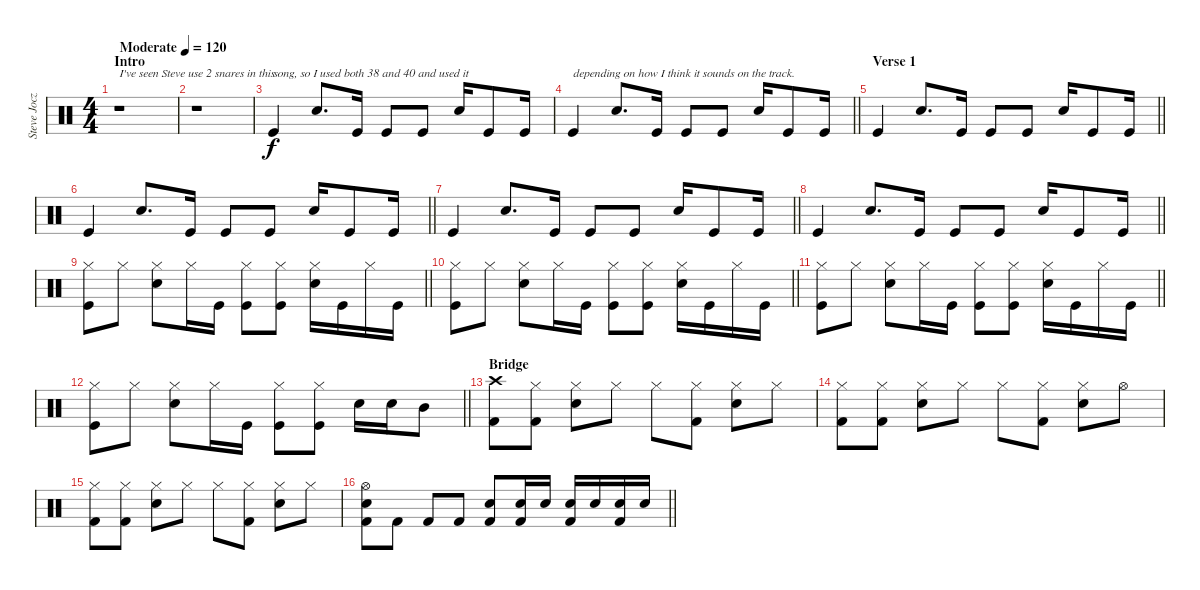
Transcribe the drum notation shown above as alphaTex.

\track ("Steve Jocz" "Steve Jocz") {instrument percussion}
\staff {score}
\articulation defaults
\ts (4 4)
\section ("" "Intro")
\tempo (120 "Moderate")
\clef neutral
\ks c
r.1{txt "I've seen Steve use 2 snares in this" dy f} |
r.1 |
"Kick (hit)".4{txt "song, so I used both 38 and 40 and used it"} "Snare (hit) 2".8{d} "Kick (hit)".16 "Kick (hit)".8 "Kick (hit)".8 "Electric Snare (hit)".16 "Kick (hit)".8 "Kick (hit)".16 |
\barLineRight lightlight "Kick (hit)".4{txt "depending on how I think it sounds on the track."} "Snare (hit) 2".8{d} "Kick (hit)".16 "Kick (hit)".8 "Kick (hit)".8 "Electric Snare (hit)".16 "Kick (hit)".8 "Kick (hit)".16
|
\section ("" "Verse 1")
\barLineRight lightlight "Kick (hit)".4 "Snare (hit) 2".8{d} "Kick (hit)".16 "Kick (hit)".8 "Kick (hit)".8 "Electric Snare (hit)".16 "Kick (hit)".8 "Kick (hit)".16
|
\barLineRight lightlight "Kick (hit)".4 "Snare (hit) 2".8{d} "Kick (hit)".16 "Kick (hit)".8 "Kick (hit)".8 "Electric Snare (hit)".16 "Kick (hit)".8 "Kick (hit)".16
|
\barLineRight lightlight "Kick (hit)".4 "Snare (hit) 2".8{d} "Kick (hit)".16 "Kick (hit)".8 "Kick (hit)".8 "Electric Snare (hit)".16 "Kick (hit)".8 "Kick (hit)".16
|
\barLineRight lightlight "Kick (hit)".4 "Snare (hit) 2".8{d} "Kick (hit)".16 "Kick (hit)".8 "Kick (hit)".8 "Electric Snare (hit)".16 "Kick (hit)".8 "Kick (hit)".16
|
\barLineRight lightlight
("Hi-Hat (closed)" "Kick (hit)").8 "Hi-Hat (closed)".8 ("Hi-Hat (closed)" "Snare (hit) 2").8 "Hi-Hat (closed)".16 "Kick (hit)".16 ("Hi-Hat (closed)" "Kick (hit)").8 ("Hi-Hat (closed)" "Kick (hit)").8 ("Hi-Hat (closed)" "Electric Snare (hit)").16 "Kick (hit)".16 "Hi-Hat (closed)".16 "Kick (hit)".16 |
\barLineRight lightlight
("Hi-Hat (closed)" "Kick (hit)").8 "Hi-Hat (closed)".8 ("Hi-Hat (closed)" "Snare (hit) 2").8 "Hi-Hat (closed)".16 "Kick (hit)".16 ("Hi-Hat (closed)" "Kick (hit)").8 ("Hi-Hat (closed)" "Kick (hit)").8 ("Hi-Hat (closed)" "Electric Snare (hit)").16 "Kick (hit)".16 "Hi-Hat (closed)".16 "Kick (hit)".16 |
\barLineRight lightlight
("Hi-Hat (closed)" "Kick (hit)").8 "Hi-Hat (closed)".8 ("Hi-Hat (closed)" "Snare (hit) 2").8 "Hi-Hat (closed)".16 "Kick (hit)".16 ("Hi-Hat (closed)" "Kick (hit)").8 ("Hi-Hat (closed)" "Kick (hit)").8 ("Hi-Hat (closed)" "Electric Snare (hit)").16 "Kick (hit)".16 "Hi-Hat (closed)".16 "Kick (hit)".16 |
\barLineRight lightlight
("Hi-Hat (closed)" "Kick (hit)").8 "Hi-Hat (closed)".8 ("Hi-Hat (closed)" "Snare (hit) 2").8 "Hi-Hat (closed)".16 "Kick (hit)".16 ("Hi-Hat (closed)" "Kick (hit)").8 ("Hi-Hat (closed)" "Kick (hit)").8 "Snare (hit) 2".16 "Snare (hit) 2".16 "Mid Tom (hit)".8 |
\section ("" "Bridge")
("Crash high (hit)" "Kick (hit) 2").8 ("Hi-Hat (closed)" "Kick (hit) 2").8 ("Hi-Hat (closed)" "Snare (hit) 2").8 "Hi-Hat (closed)".8 "Hi-Hat (closed)".8 ("Hi-Hat (closed)" "Kick (hit) 2").8 ("Hi-Hat (closed)" "Snare (hit) 2").8 "Hi-Hat (closed)".8 |
("Hi-Hat (closed)" "Kick (hit) 2").8 ("Hi-Hat (closed)" "Kick (hit) 2").8 ("Hi-Hat (closed)" "Snare (hit) 2").8 "Hi-Hat (closed)".8 "Hi-Hat (closed)".8 ("Hi-Hat (closed)" "Kick (hit) 2").8 ("Hi-Hat (closed)" "Snare (hit) 2").8 "Hi-Hat (open)".8 |
("Hi-Hat (closed)" "Kick (hit) 2").8 ("Hi-Hat (closed)" "Kick (hit) 2").8 ("Hi-Hat (closed)" "Snare (hit) 2").8 "Hi-Hat (closed)".8 "Hi-Hat (closed)".8 ("Hi-Hat (closed)" "Kick (hit) 2").8 ("Hi-Hat (closed)" "Snare (hit) 2").8 "Hi-Hat (closed)".8 |
\barLineRight lightlight
("Hi-Hat (open)" "Snare (hit) 2" "Kick (hit) 2").8 "Kick (hit) 2".8 "Kick (hit) 2".8 "Kick (hit) 2".8 ("Snare (hit) 2" "Kick (hit) 2").8 ("Snare (hit) 2" "Kick (hit) 2").16 "Snare (hit) 2".16 ("Snare (hit) 2" "Kick (hit) 2").16 "Snare (hit) 2".16 ("Snare (hit) 2" "Kick (hit) 2").16 "Snare (hit) 2".16
